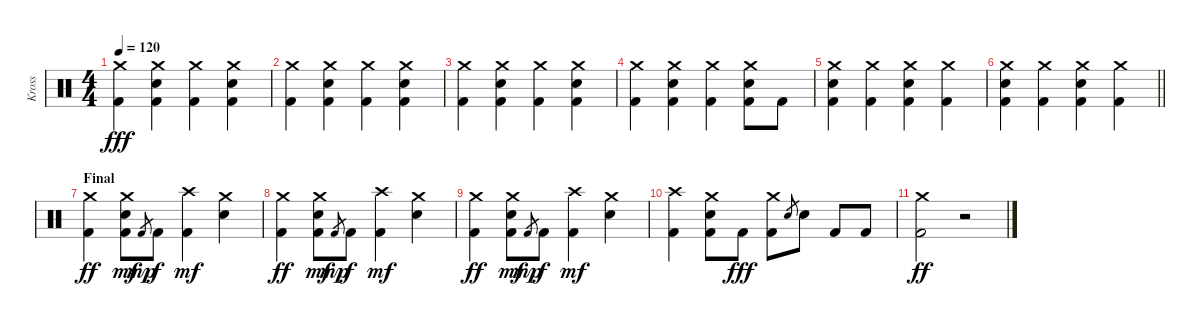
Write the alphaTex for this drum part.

\track ("Kross" "Kross") {instrument percussion}
\staff {score}
\articulation defaults
\ts (4 4)
\tempo 120
\clef neutral
\ks c
("Crash medium (hit)" "Kick (hit) 2").4{dy fff} ("Snare (hit) 2" "Crash medium (hit)" "Kick (hit) 2").4 ("Crash medium (hit)" "Kick (hit) 2").4 ("Snare (hit) 2" "Crash medium (hit)" "Kick (hit) 2").4 |
("Crash medium (hit)" "Kick (hit) 2").4 ("Snare (hit) 2" "Crash medium (hit)" "Kick (hit) 2").4 ("Crash medium (hit)" "Kick (hit) 2").4 ("Snare (hit) 2" "Crash medium (hit)" "Kick (hit) 2").4 |
("Crash medium (hit)" "Kick (hit) 2").4 ("Snare (hit) 2" "Crash medium (hit)" "Kick (hit) 2").4 ("Crash medium (hit)" "Kick (hit) 2").4 ("Snare (hit) 2" "Crash medium (hit)" "Kick (hit) 2").4 |
("Crash medium (hit)" "Kick (hit) 2").4 ("Snare (hit) 2" "Crash medium (hit)" "Kick (hit) 2").4 ("Crash medium (hit)" "Kick (hit) 2").4 ("Snare (hit) 2" "Crash medium (hit)" "Kick (hit) 2").8 "Kick (hit) 2".8 |
("Snare (hit) 2" "Crash medium (hit)" "Kick (hit) 2").4 ("Crash medium (hit)" "Kick (hit) 2").4 ("Snare (hit) 2" "Crash medium (hit)" "Kick (hit) 2").4 ("Crash medium (hit)" "Kick (hit) 2").4 |
\barLineRight lightlight
("Snare (hit) 2" "Crash medium (hit)" "Kick (hit) 2").4 ("Crash medium (hit)" "Kick (hit) 2").4 ("Snare (hit) 2" "Crash medium (hit)" "Kick (hit) 2").4 ("Crash medium (hit)" "Kick (hit) 2").4 |
\section ("" "Final")
("Kick (hit) 2" "Crash medium (hit)").4{dy ff} ("Kick (hit) 2" "Crash medium (hit)" "Snare (hit) 2").8{dy mf} "Kick (hit) 2".8{gr dy mp} "Kick (hit) 2".8{dy f} ("Kick (hit) 2" "Crash high (hit)").4{dy mf} ("Crash medium (hit)" "Electric Snare (hit)").4 |
("Kick (hit) 2" "Crash medium (hit)").4{dy ff} ("Kick (hit) 2" "Crash medium (hit)" "Snare (hit) 2").8{dy mf} "Kick (hit) 2".8{gr dy mp} "Kick (hit) 2".8{dy f} ("Kick (hit) 2" "Crash high (hit)").4{dy mf} ("Crash medium (hit)" "Electric Snare (hit)").4 |
("Kick (hit) 2" "Crash medium (hit)").4{dy ff} ("Kick (hit) 2" "Crash medium (hit)" "Snare (hit) 2").8{dy mf} "Kick (hit) 2".8{gr dy mp} "Kick (hit) 2".8{dy f} ("Kick (hit) 2" "Crash high (hit)").4{dy mf} ("Crash medium (hit)" "Electric Snare (hit)").4 |
("Kick (hit) 2" "Crash high (hit)").4 ("Kick (hit) 2" "Crash medium (hit)" "Electric Snare (hit)").8 "Kick (hit) 2".8{dy fff} ("Kick (hit) 2" "Crash medium (hit)").8 "Electric Snare (hit)".8{gr} "Electric Snare (hit)".8 "Kick (hit) 2".8 "Kick (hit) 2".8 |
("Kick (hit) 2" "Crash medium (hit)").2{dy ff} r.2
